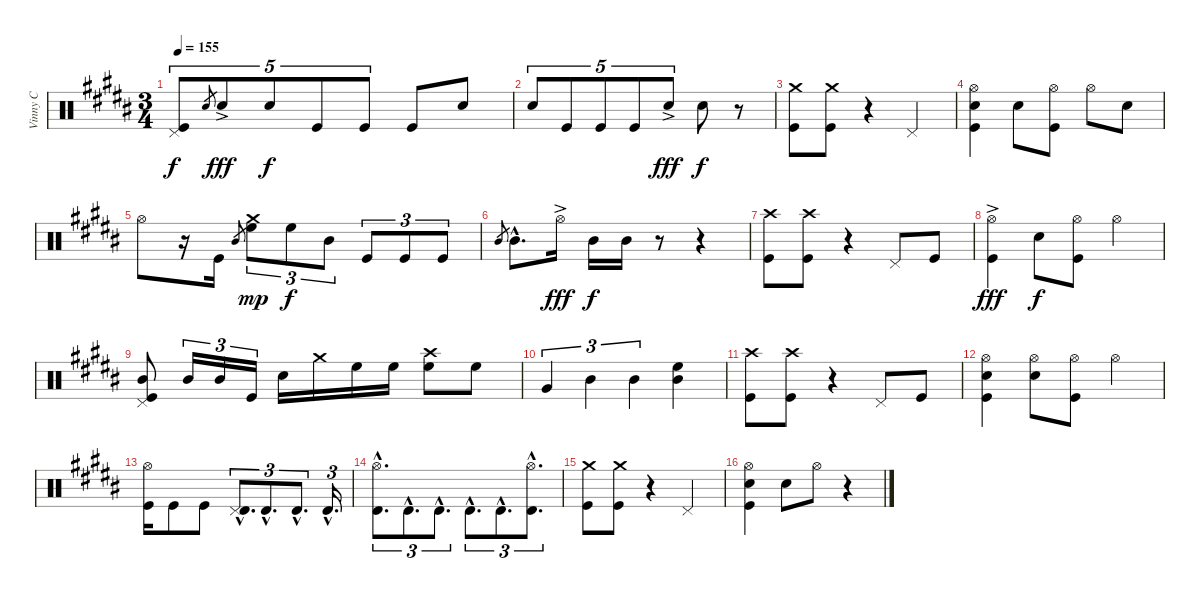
\track ("Vinny C" "Vinny C") {instrument percussion}
\staff {score}
\articulation defaults
\ts (3 4)
\tempo 155
\clef neutral
\ks b
("Pedal Hi-Hat (hit)" "Kick (hit)").8{tu (5 4) dy f} "Electric Snare (hit)".8{gr} "Electric Snare (hit)"{ac}.8{tu (5 4) dy fff} "Electric Snare (hit)".8{tu (5 4) dy f} "Kick (hit)".8{tu (5 4)} "Kick (hit)".8{tu (5 4)} "Kick (hit)".8 "Electric Snare (hit)".8 |
"Electric Snare (hit)".8{tu (5 4)} "Kick (hit)".8{tu (5 4)} "Kick (hit)".8{tu (5 4)} "Kick (hit)".8{tu (5 4)} "Electric Snare (hit)"{ac}.8{tu (5 4) dy fff} "Electric Snare (hit)".8{dy f} r.8 |
("Crash medium (hit)" "Kick (hit)").8 ("Crash medium (hit)" "Kick (hit)").8 r.4 "Pedal Hi-Hat (hit)".4 |
("Hi-Hat (open)" "Electric Snare (hit)" "Kick (hit)").4 "Electric Snare (hit)".8 ("Hi-Hat (open)" "Kick (hit)").8 "Hi-Hat (open)".8 "Electric Snare (hit)".8 |
"Hi-Hat (open)".8 r.16 "Kick (hit)".16 "Mid Tom (hit)".8{gr} ("Crash medium (hit)" "High Floor Tom (hit)").8{tu (3 2) dy mp} "High Floor Tom (hit)".8{tu (3 2) dy f} "Mid Tom (hit)".8{tu (3 2)} "Kick (hit)".8{tu (3 2)} "Kick (hit)".8{tu (3 2)} "Kick (hit)".8{tu (3 2)} |
"Mid Tom (hit)".8{gr} "Mid Tom (hit)"{hac}.8{d} "Hi-Hat (open)"{ac}.16{dy fff} "Mid Tom (hit)".16{dy f} "Mid Tom (hit)".16 r.8 r.4 |
("Crash high (hit)" "Kick (hit)").8 ("Crash high (hit)" "Kick (hit)").8 r.4 "Pedal Hi-Hat (hit)".8 "Kick (hit)".8 |
("Hi-Hat (open)" "Kick (hit)"{ac}).4{dy fff} "Electric Snare (hit)".8{dy f} ("Hi-Hat (open)" "Kick (hit)").8 "Hi-Hat (open)".4 |
("Pedal Hi-Hat (hit)" "Mid Tom (hit)" "Kick (hit)").8 "Mid Tom (hit)".16{tu (3 2)} "Mid Tom (hit)".16{tu (3 2)} "Kick (hit)".16{tu (3 2)} "Electric Snare (hit)".16 "Crash medium (hit)".16 "High Floor Tom (hit)".16 "High Floor Tom (hit)".16 ("Crash high (hit)" "High Floor Tom (hit)").8 "High Floor Tom (hit)".8 |
"Very Low Tom (hit)".4{tu (3 2)} "Mid Tom (hit)".4{tu (3 2)} "Mid Tom (hit)".4{tu (3 2)} ("High Floor Tom (hit)" "Mid Tom (hit)").4 |
("Crash high (hit)" "Kick (hit)").8 ("Crash high (hit)" "Kick (hit)").8 r.4 "Pedal Hi-Hat (hit)".8 "Kick (hit)".8 |
("Hi-Hat (open)" "Electric Snare (hit)" "Kick (hit)").4 ("Hi-Hat (open)" "Electric Snare (hit)").8 ("Hi-Hat (open)" "Kick (hit)").8 "Hi-Hat (open)".4 |
("Hi-Hat (open)" "Kick (hit)").16 "Kick (hit)".8 "Kick (hit)".8 ("Pedal Hi-Hat (hit)"{hac} "Timbale high (hit)"{hac}).8{d tu (3 2)} "Timbale high (hit)"{hac}.8{d tu (3 2)} "Timbale high (hit)"{hac}.8{d tu (3 2)} "Timbale high (hit)"{hac}.16{d tu (3 2)} |
("Hi-Hat (open)"{hac} "Timbale high (hit)"{hac}).8{d tu (3 2)} "Timbale high (hit)"{hac}.8{d tu (3 2)} "Timbale high (hit)"{hac}.8{d tu (3 2)} "Timbale high (hit)"{hac}.8{d tu (3 2)} "Timbale high (hit)"{hac}.8{d tu (3 2)} ("Hi-Hat (open)"{hac} "Timbale high (hit)"{hac}).8{d tu (3 2)} |
("Crash medium (hit)" "Kick (hit)").8 ("Crash medium (hit)" "Kick (hit)").8 r.4 "Pedal Hi-Hat (hit)".4 |
("Hi-Hat (open)" "Electric Snare (hit)" "Kick (hit)").4 "Electric Snare (hit)".8 "Hi-Hat (open)".8 r.4
